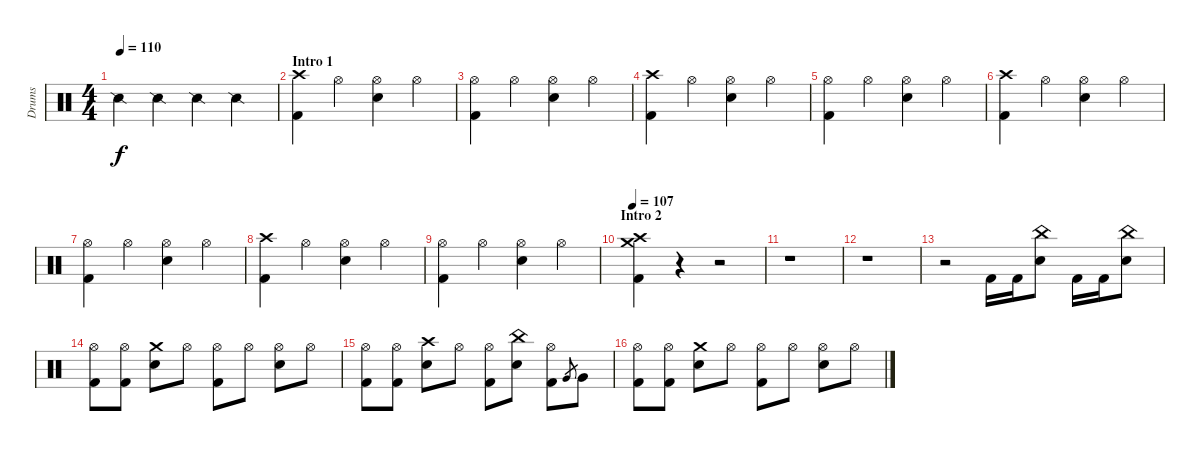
\track ("Drums" "Drums") {instrument percussion}
\staff {score}
\articulation defaults
\ts (4 4)
\tempo 110
\clef neutral
\ks c "Snare (side stick) 2".4{dy f} "Snare (side stick) 2".4 "Snare (side stick) 2".4 "Snare (side stick) 2".4
|
\section ("" "Intro 1")
("Crash high (hit)" "Kick (hit) 2").4 "Hi-Hat (open)".4 ("Hi-Hat (open)" "Electric Snare (hit)").4 "Hi-Hat (open)".4 |
("Hi-Hat (open)" "Kick (hit) 2").4 "Hi-Hat (open)".4 ("Hi-Hat (open)" "Electric Snare (hit)").4 "Hi-Hat (open)".4 |
("Crash high (hit)" "Kick (hit) 2").4 "Hi-Hat (open)".4 ("Hi-Hat (open)" "Electric Snare (hit)").4 "Hi-Hat (open)".4 |
("Hi-Hat (open)" "Kick (hit) 2").4 "Hi-Hat (open)".4 ("Hi-Hat (open)" "Electric Snare (hit)").4 "Hi-Hat (open)".4 |
("Crash high (hit)" "Kick (hit) 2").4 "Hi-Hat (open)".4 ("Hi-Hat (open)" "Electric Snare (hit)").4 "Hi-Hat (open)".4 |
("Hi-Hat (open)" "Kick (hit) 2").4 "Hi-Hat (open)".4 ("Hi-Hat (open)" "Electric Snare (hit)").4 "Hi-Hat (open)".4 |
("Crash high (hit)" "Kick (hit) 2").4 "Hi-Hat (open)".4 ("Hi-Hat (open)" "Electric Snare (hit)").4 "Hi-Hat (open)".4 |
("Hi-Hat (open)" "Kick (hit) 2").4 "Hi-Hat (open)".4 ("Hi-Hat (open)" "Electric Snare (hit)").4 "Hi-Hat (open)".4 |
\section ("" "Intro 2")
\tempo 107
("Crash high (hit)" "Crash medium (hit)" "Kick (hit) 2").4 r.4 r.2 |
r.1 |
r.1 |
r.2 "Kick (hit) 2".16 "Kick (hit) 2".16 ("China (hit)" "Electric Snare (hit)").8 "Kick (hit) 2".16 "Kick (hit) 2".16 ("China (hit)" "Electric Snare (hit)").8 |
("Hi-Hat (open)" "Kick (hit) 2").8 ("Hi-Hat (open)" "Kick (hit) 2").8 ("Crash medium (hit)" "Electric Snare (hit)").8 "Hi-Hat (open)".8 ("Hi-Hat (open)" "Kick (hit) 2").8 "Hi-Hat (open)".8 ("Hi-Hat (open)" "Electric Snare (hit)").8 "Hi-Hat (open)".8 |
("Hi-Hat (open)" "Kick (hit) 2").8 ("Hi-Hat (open)" "Kick (hit) 2").8 ("Crash high (hit)" "Electric Snare (hit)").8 "Hi-Hat (open)".8 ("Hi-Hat (open)" "Kick (hit) 2").8 ("China (hit)" "Electric Snare (hit)").8 ("Hi-Hat (open)" "Kick (hit) 2").8 "Very Low Tom (hit)".8{gr} "Very Low Tom (hit)".8 |
("Hi-Hat (open)" "Kick (hit) 2").8 ("Hi-Hat (open)" "Kick (hit) 2").8 ("Crash medium (hit)" "Electric Snare (hit)").8 "Hi-Hat (open)".8 ("Hi-Hat (open)" "Kick (hit) 2").8 "Hi-Hat (open)".8 ("Hi-Hat (open)" "Electric Snare (hit)").8 "Hi-Hat (open)".8
